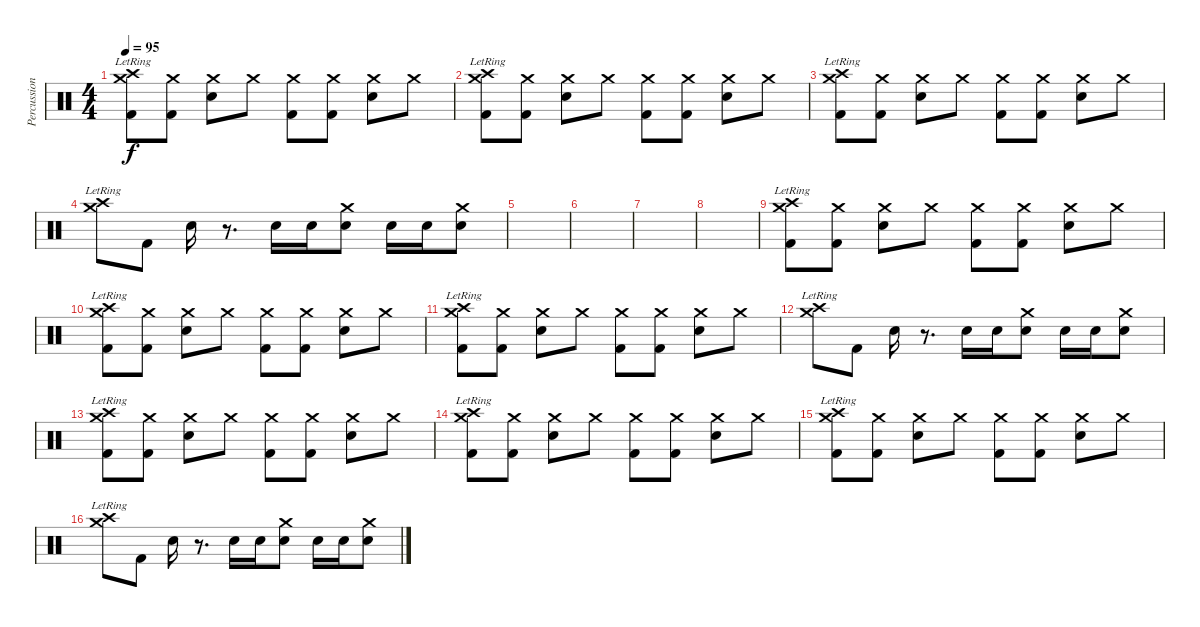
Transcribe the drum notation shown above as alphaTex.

\track ("Percussion" "Percussion") {instrument percussion}
\staff {score}
\articulation defaults
\ts (4 4)
\tempo 95
\clef neutral
\ks c
("Crash high (hit)"{lr} "Crash medium (hit)" "Kick (hit) 2").8{dy f} ("Crash medium (hit)" "Kick (hit) 2").8 ("Crash medium (hit)" "Electric Snare (hit)").8 "Crash medium (hit)".8 ("Crash medium (hit)" "Kick (hit) 2").8 ("Crash medium (hit)" "Kick (hit) 2").8 ("Crash medium (hit)" "Electric Snare (hit)").8 "Crash medium (hit)".8 |
("Crash high (hit)"{lr} "Crash medium (hit)" "Kick (hit) 2").8 ("Crash medium (hit)" "Kick (hit) 2").8 ("Crash medium (hit)" "Electric Snare (hit)").8 "Crash medium (hit)".8 ("Crash medium (hit)" "Kick (hit) 2").8 ("Crash medium (hit)" "Kick (hit) 2").8 ("Crash medium (hit)" "Electric Snare (hit)").8 "Crash medium (hit)".8 |
("Crash high (hit)"{lr} "Crash medium (hit)" "Kick (hit) 2").8 ("Crash medium (hit)" "Kick (hit) 2").8 ("Crash medium (hit)" "Electric Snare (hit)").8 "Crash medium (hit)".8 ("Crash medium (hit)" "Kick (hit) 2").8 ("Crash medium (hit)" "Kick (hit) 2").8 ("Crash medium (hit)" "Electric Snare (hit)").8 "Crash medium (hit)".8 |
("Crash high (hit)"{lr} "Crash medium (hit)"{lr}).8 "Kick (hit) 2".8 "Electric Snare (hit)".16 r.8{d} "Electric Snare (hit)".16 "Electric Snare (hit)".16 ("Crash medium (hit)" "Electric Snare (hit)").8 "Electric Snare (hit)".16 "Electric Snare (hit)".16 ("Crash medium (hit)" "Electric Snare (hit)").8 |
|
|
|
|
("Crash high (hit)"{lr} "Crash medium (hit)" "Kick (hit) 2").8 ("Crash medium (hit)" "Kick (hit) 2").8 ("Crash medium (hit)" "Electric Snare (hit)").8 "Crash medium (hit)".8 ("Crash medium (hit)" "Kick (hit) 2").8 ("Crash medium (hit)" "Kick (hit) 2").8 ("Crash medium (hit)" "Electric Snare (hit)").8 "Crash medium (hit)".8 |
("Crash high (hit)"{lr} "Crash medium (hit)" "Kick (hit) 2").8 ("Crash medium (hit)" "Kick (hit) 2").8 ("Crash medium (hit)" "Electric Snare (hit)").8 "Crash medium (hit)".8 ("Crash medium (hit)" "Kick (hit) 2").8 ("Crash medium (hit)" "Kick (hit) 2").8 ("Crash medium (hit)" "Electric Snare (hit)").8 "Crash medium (hit)".8 |
("Crash high (hit)"{lr} "Crash medium (hit)" "Kick (hit) 2").8 ("Crash medium (hit)" "Kick (hit) 2").8 ("Crash medium (hit)" "Electric Snare (hit)").8 "Crash medium (hit)".8 ("Crash medium (hit)" "Kick (hit) 2").8 ("Crash medium (hit)" "Kick (hit) 2").8 ("Crash medium (hit)" "Electric Snare (hit)").8 "Crash medium (hit)".8 |
("Crash high (hit)"{lr} "Crash medium (hit)"{lr}).8 "Kick (hit) 2".8 "Electric Snare (hit)".16 r.8{d} "Electric Snare (hit)".16 "Electric Snare (hit)".16 ("Crash medium (hit)" "Electric Snare (hit)").8 "Electric Snare (hit)".16 "Electric Snare (hit)".16 ("Crash medium (hit)" "Electric Snare (hit)").8 |
("Crash high (hit)"{lr} "Crash medium (hit)" "Kick (hit) 2").8 ("Crash medium (hit)" "Kick (hit) 2").8 ("Crash medium (hit)" "Electric Snare (hit)").8 "Crash medium (hit)".8 ("Crash medium (hit)" "Kick (hit) 2").8 ("Crash medium (hit)" "Kick (hit) 2").8 ("Crash medium (hit)" "Electric Snare (hit)").8 "Crash medium (hit)".8 |
("Crash high (hit)"{lr} "Crash medium (hit)" "Kick (hit) 2").8 ("Crash medium (hit)" "Kick (hit) 2").8 ("Crash medium (hit)" "Electric Snare (hit)").8 "Crash medium (hit)".8 ("Crash medium (hit)" "Kick (hit) 2").8 ("Crash medium (hit)" "Kick (hit) 2").8 ("Crash medium (hit)" "Electric Snare (hit)").8 "Crash medium (hit)".8 |
("Crash high (hit)"{lr} "Crash medium (hit)" "Kick (hit) 2").8 ("Crash medium (hit)" "Kick (hit) 2").8 ("Crash medium (hit)" "Electric Snare (hit)").8 "Crash medium (hit)".8 ("Crash medium (hit)" "Kick (hit) 2").8 ("Crash medium (hit)" "Kick (hit) 2").8 ("Crash medium (hit)" "Electric Snare (hit)").8 "Crash medium (hit)".8 |
("Crash high (hit)"{lr} "Crash medium (hit)"{lr}).8 "Kick (hit) 2".8 "Electric Snare (hit)".16 r.8{d} "Electric Snare (hit)".16 "Electric Snare (hit)".16 ("Crash medium (hit)" "Electric Snare (hit)").8 "Electric Snare (hit)".16 "Electric Snare (hit)".16 ("Crash medium (hit)" "Electric Snare (hit)").8
